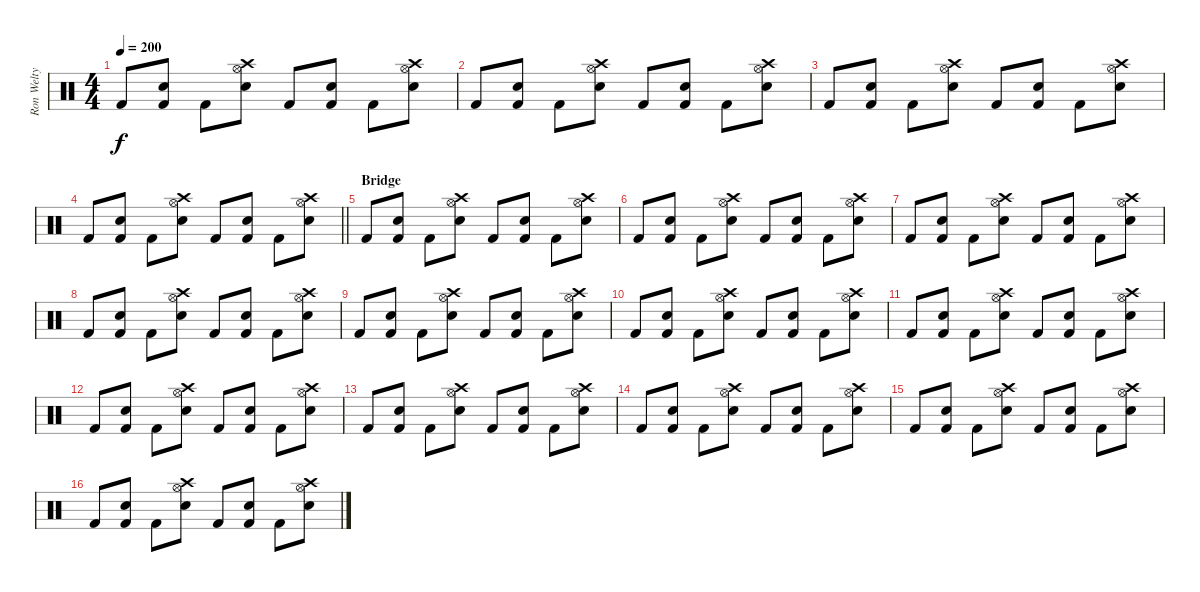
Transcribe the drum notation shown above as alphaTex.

\track ("Ron Welty" "Ron Welty") {instrument percussion}
\staff {score}
\articulation defaults
\ts (4 4)
\tempo 200
\clef neutral
\ks c "Kick (hit) 2".8{dy f}
("Kick (hit) 2" "Electric Snare (hit)").8 "Kick (hit) 2".8 ("Snare (hit) 2" "Hi-Hat (open)" "Crash high (hit)").8 "Kick (hit) 2".8 ("Kick (hit) 2" "Electric Snare (hit)").8 "Kick (hit) 2".8 ("Snare (hit) 2" "Hi-Hat (open)" "Crash high (hit)").8 |
"Kick (hit) 2".8 ("Kick (hit) 2" "Electric Snare (hit)").8 "Kick (hit) 2".8 ("Snare (hit) 2" "Hi-Hat (open)" "Crash high (hit)").8 "Kick (hit) 2".8 ("Kick (hit) 2" "Electric Snare (hit)").8 "Kick (hit) 2".8 ("Snare (hit) 2" "Hi-Hat (open)" "Crash high (hit)").8 |
"Kick (hit) 2".8 ("Kick (hit) 2" "Electric Snare (hit)").8 "Kick (hit) 2".8 ("Snare (hit) 2" "Hi-Hat (open)" "Crash high (hit)").8 "Kick (hit) 2".8 ("Kick (hit) 2" "Electric Snare (hit)").8 "Kick (hit) 2".8 ("Snare (hit) 2" "Hi-Hat (open)" "Crash high (hit)").8 |
\barLineRight lightlight "Kick (hit) 2".8
("Kick (hit) 2" "Electric Snare (hit)").8 "Kick (hit) 2".8 ("Snare (hit) 2" "Hi-Hat (open)" "Crash high (hit)").8 "Kick (hit) 2".8 ("Kick (hit) 2" "Electric Snare (hit)").8 "Kick (hit) 2".8 ("Snare (hit) 2" "Hi-Hat (open)" "Crash high (hit)").8 |
\section ("" "Bridge")
"Kick (hit) 2".8 ("Kick (hit) 2" "Electric Snare (hit)").8 "Kick (hit) 2".8 ("Snare (hit) 2" "Hi-Hat (open)" "Crash high (hit)").8 "Kick (hit) 2".8 ("Kick (hit) 2" "Electric Snare (hit)").8 "Kick (hit) 2".8 ("Snare (hit) 2" "Hi-Hat (open)" "Crash high (hit)").8 |
"Kick (hit) 2".8 ("Kick (hit) 2" "Electric Snare (hit)").8 "Kick (hit) 2".8 ("Snare (hit) 2" "Hi-Hat (open)" "Crash high (hit)").8 "Kick (hit) 2".8 ("Kick (hit) 2" "Electric Snare (hit)").8 "Kick (hit) 2".8 ("Snare (hit) 2" "Hi-Hat (open)" "Crash high (hit)").8 |
"Kick (hit) 2".8 ("Kick (hit) 2" "Electric Snare (hit)").8 "Kick (hit) 2".8 ("Snare (hit) 2" "Hi-Hat (open)" "Crash high (hit)").8 "Kick (hit) 2".8 ("Kick (hit) 2" "Electric Snare (hit)").8 "Kick (hit) 2".8 ("Snare (hit) 2" "Hi-Hat (open)" "Crash high (hit)").8 |
"Kick (hit) 2".8 ("Kick (hit) 2" "Electric Snare (hit)").8 "Kick (hit) 2".8 ("Snare (hit) 2" "Hi-Hat (open)" "Crash high (hit)").8 "Kick (hit) 2".8 ("Kick (hit) 2" "Electric Snare (hit)").8 "Kick (hit) 2".8 ("Snare (hit) 2" "Hi-Hat (open)" "Crash high (hit)").8 |
"Kick (hit) 2".8 ("Kick (hit) 2" "Electric Snare (hit)").8 "Kick (hit) 2".8 ("Snare (hit) 2" "Hi-Hat (open)" "Crash high (hit)").8 "Kick (hit) 2".8 ("Kick (hit) 2" "Electric Snare (hit)").8 "Kick (hit) 2".8 ("Snare (hit) 2" "Hi-Hat (open)" "Crash high (hit)").8 |
"Kick (hit) 2".8 ("Kick (hit) 2" "Electric Snare (hit)").8 "Kick (hit) 2".8 ("Snare (hit) 2" "Hi-Hat (open)" "Crash high (hit)").8 "Kick (hit) 2".8 ("Kick (hit) 2" "Electric Snare (hit)").8 "Kick (hit) 2".8 ("Snare (hit) 2" "Hi-Hat (open)" "Crash high (hit)").8 |
"Kick (hit) 2".8 ("Kick (hit) 2" "Electric Snare (hit)").8 "Kick (hit) 2".8 ("Snare (hit) 2" "Hi-Hat (open)" "Crash high (hit)").8 "Kick (hit) 2".8 ("Kick (hit) 2" "Electric Snare (hit)").8 "Kick (hit) 2".8 ("Snare (hit) 2" "Hi-Hat (open)" "Crash high (hit)").8 |
"Kick (hit) 2".8 ("Kick (hit) 2" "Electric Snare (hit)").8 "Kick (hit) 2".8 ("Snare (hit) 2" "Hi-Hat (open)" "Crash high (hit)").8 "Kick (hit) 2".8 ("Kick (hit) 2" "Electric Snare (hit)").8 "Kick (hit) 2".8 ("Snare (hit) 2" "Hi-Hat (open)" "Crash high (hit)").8 |
"Kick (hit) 2".8 ("Kick (hit) 2" "Electric Snare (hit)").8 "Kick (hit) 2".8 ("Snare (hit) 2" "Hi-Hat (open)" "Crash high (hit)").8 "Kick (hit) 2".8 ("Kick (hit) 2" "Electric Snare (hit)").8 "Kick (hit) 2".8 ("Snare (hit) 2" "Hi-Hat (open)" "Crash high (hit)").8 |
"Kick (hit) 2".8 ("Kick (hit) 2" "Electric Snare (hit)").8 "Kick (hit) 2".8 ("Snare (hit) 2" "Hi-Hat (open)" "Crash high (hit)").8 "Kick (hit) 2".8 ("Kick (hit) 2" "Electric Snare (hit)").8 "Kick (hit) 2".8 ("Snare (hit) 2" "Hi-Hat (open)" "Crash high (hit)").8 |
"Kick (hit) 2".8 ("Kick (hit) 2" "Electric Snare (hit)").8 "Kick (hit) 2".8 ("Snare (hit) 2" "Hi-Hat (open)" "Crash high (hit)").8 "Kick (hit) 2".8 ("Kick (hit) 2" "Electric Snare (hit)").8 "Kick (hit) 2".8 ("Snare (hit) 2" "Hi-Hat (open)" "Crash high (hit)").8 |
"Kick (hit) 2".8 ("Kick (hit) 2" "Electric Snare (hit)").8 "Kick (hit) 2".8 ("Snare (hit) 2" "Hi-Hat (open)" "Crash high (hit)").8 "Kick (hit) 2".8 ("Kick (hit) 2" "Electric Snare (hit)").8 "Kick (hit) 2".8 ("Snare (hit) 2" "Hi-Hat (open)" "Crash high (hit)").8
